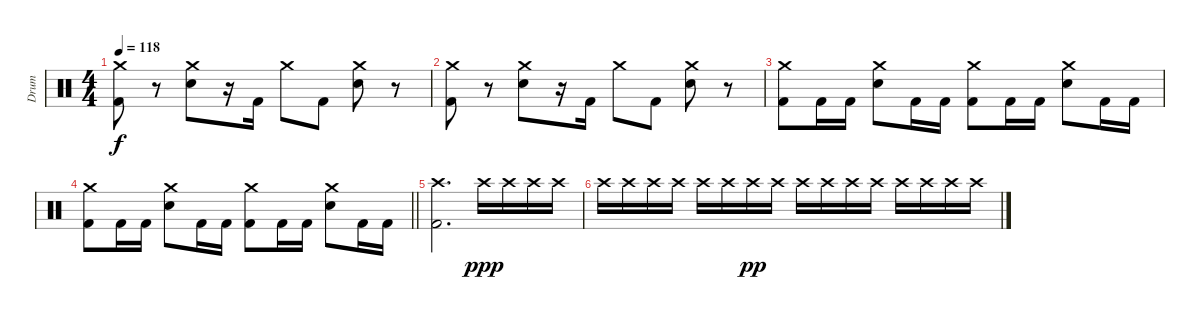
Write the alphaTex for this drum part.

\track ("Drum" "Drum") {instrument percussion}
\staff {score}
\articulation defaults
\ts (4 4)
\tempo 118
\clef neutral
\ks c
("Crash medium (hit)" "Kick (hit) 2").8{dy f} r.8 ("Crash medium (hit)" "Snare (hit) 2").8 r.16 "Kick (hit) 2".16 "Crash medium (hit)".8 "Kick (hit) 2".8 ("Crash medium (hit)" "Snare (hit) 2").8 r.8 |
("Crash medium (hit)" "Kick (hit) 2").8 r.8 ("Crash medium (hit)" "Snare (hit) 2").8 r.16 "Kick (hit) 2".16 "Crash medium (hit)".8 "Kick (hit) 2".8 ("Crash medium (hit)" "Snare (hit) 2").8 r.8 |
("Crash medium (hit)" "Kick (hit) 2").8 "Kick (hit) 2".16 "Kick (hit) 2".16 ("Crash medium (hit)" "Snare (hit) 2").8 "Kick (hit) 2".16 "Kick (hit) 2".16 ("Crash medium (hit)" "Kick (hit) 2").8 "Kick (hit) 2".16 "Kick (hit) 2".16 ("Crash medium (hit)" "Snare (hit) 2").8 "Kick (hit) 2".16 "Kick (hit) 2".16 |
\barLineRight lightlight
("Crash medium (hit)" "Kick (hit) 2").8 "Kick (hit) 2".16 "Kick (hit) 2".16 ("Crash medium (hit)" "Snare (hit) 2").8 "Kick (hit) 2".16 "Kick (hit) 2".16 ("Crash medium (hit)" "Kick (hit) 2").8 "Kick (hit) 2".16 "Kick (hit) 2".16 ("Crash medium (hit)" "Snare (hit) 2").8 "Kick (hit) 2".16 "Kick (hit) 2".16 |
("Crash high (hit)" "Kick (hit) 2").2{d} "Crash high (hit)".16{dy ppp} "Crash high (hit)".16 "Crash high (hit)".16 "Crash high (hit)".16 |
"Crash high (hit)".16 "Crash high (hit)".16 "Crash high (hit)".16 "Crash high (hit)".16 "Crash high (hit)".16 "Crash high (hit)".16 "Crash high (hit)".16{dy pp} "Crash high (hit)".16 "Crash high (hit)".16 "Crash high (hit)".16 "Crash high (hit)".16 "Crash high (hit)".16 "Crash high (hit)".16 "Crash high (hit)".16 "Crash high (hit)".16 "Crash high (hit)".16
